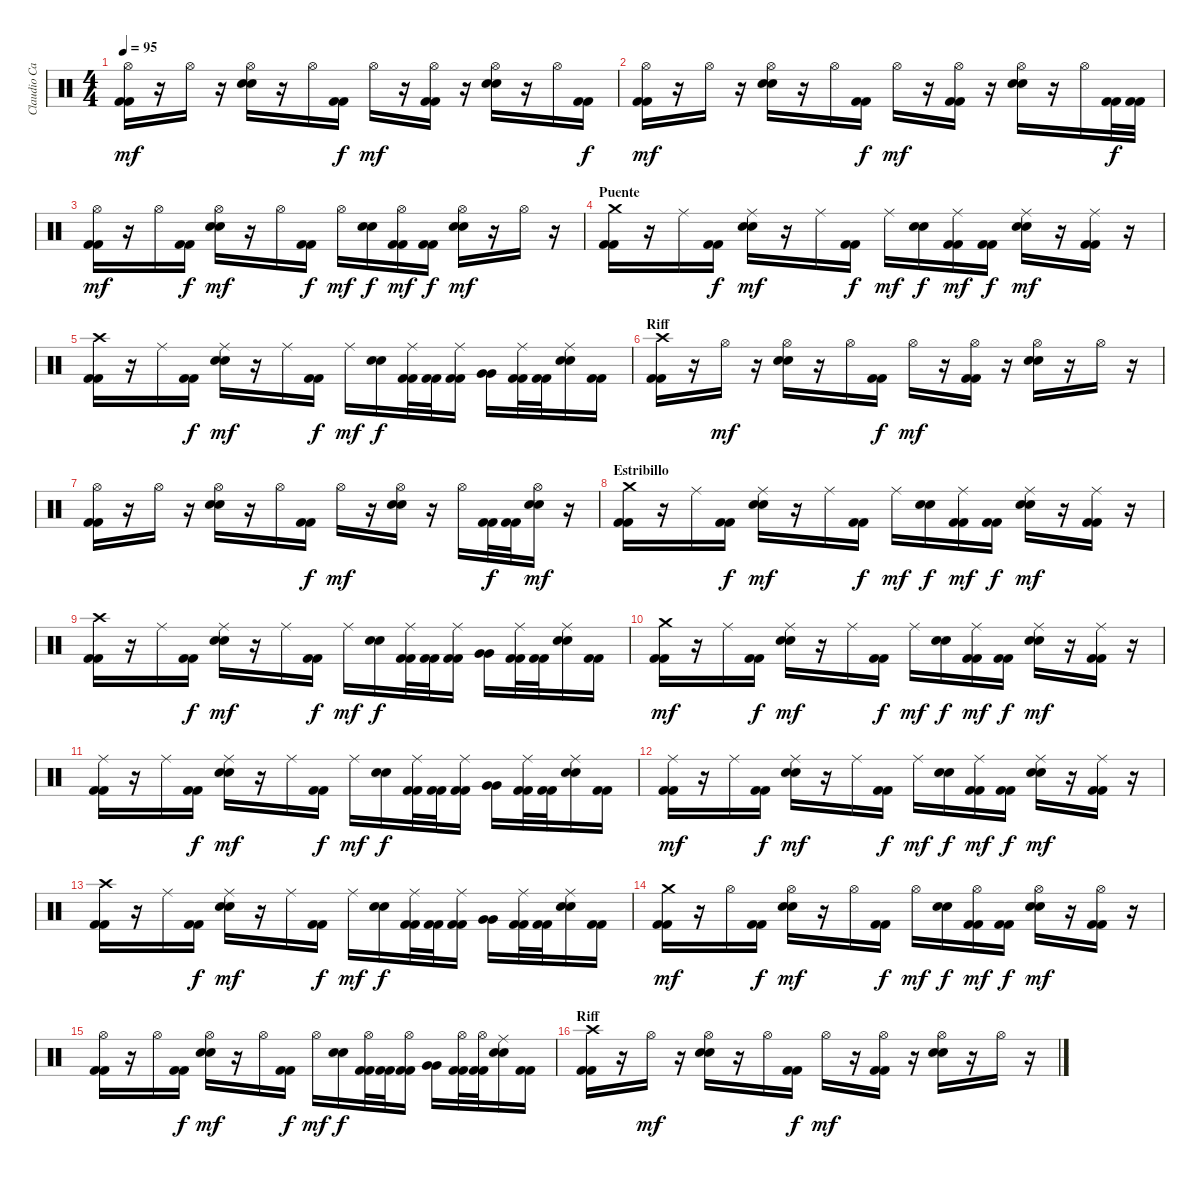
\track ("Claudio Cardaci (bateria)" "Claudio Ca") {instrument percussion}
\staff {score}
\articulation defaults
\ts (4 4)
\tempo 95
\clef neutral
\ks c
("Hi-Hat (open)" "Kick (hit) 2" "Kick (hit) 2").16{dy mf} r.16 "Hi-Hat (open)".16 r.16 ("Hi-Hat (open)" "Snare (hit) 2" "Snare (hit) 2").16 r.16 "Hi-Hat (open)".16 ("Kick (hit) 2" "Kick (hit) 2").16{dy f} "Hi-Hat (open)".16{dy mf} r.16 ("Hi-Hat (open)" "Kick (hit) 2" "Kick (hit) 2").16 r.16 ("Hi-Hat (open)" "Snare (hit) 2" "Snare (hit) 2").16 r.16 "Hi-Hat (open)".16 ("Kick (hit) 2" "Kick (hit) 2").16{dy f} |
("Hi-Hat (open)" "Kick (hit) 2" "Kick (hit) 2").16{dy mf} r.16 "Hi-Hat (open)".16 r.16 ("Hi-Hat (open)" "Snare (hit) 2" "Snare (hit) 2").16 r.16 "Hi-Hat (open)".16 ("Kick (hit) 2" "Kick (hit) 2").16{dy f} "Hi-Hat (open)".16{dy mf} r.16 ("Hi-Hat (open)" "Kick (hit) 2" "Kick (hit) 2").16 r.16 ("Hi-Hat (open)" "Snare (hit) 2" "Snare (hit) 2").16 r.16 "Hi-Hat (open)".16 ("Kick (hit) 2" "Kick (hit) 2").32{dy f} ("Kick (hit) 2" "Kick (hit) 2").32 |
("Hi-Hat (open)" "Kick (hit) 2" "Kick (hit) 2").16{dy mf} r.16 "Hi-Hat (open)".16 ("Kick (hit) 2" "Kick (hit) 2").16{dy f} ("Hi-Hat (open)" "Snare (hit) 2" "Snare (hit) 2").16{dy mf} r.16 "Hi-Hat (open)".16 ("Kick (hit) 2" "Kick (hit) 2").16{dy f} "Hi-Hat (open)".16{dy mf} ("Snare (hit) 2" "Snare (hit) 2").16{dy f} ("Hi-Hat (open)" "Kick (hit) 2" "Kick (hit) 2").16{dy mf} ("Kick (hit) 2" "Kick (hit) 2").16{dy f} ("Hi-Hat (open)" "Snare (hit) 2" "Snare (hit) 2").16{dy mf} r.16 "Hi-Hat (open)".16 r.16 |
\section ("" "Puente")
("Crash medium (hit)" "Kick (hit) 2" "Kick (hit) 2").16 r.16 "Ride (middle)".16 ("Kick (hit) 2" "Kick (hit) 2").16{dy f} ("Ride (middle)" "Snare (hit) 2" "Snare (hit) 2").16{dy mf} r.16 "Ride (middle)".16 ("Kick (hit) 2" "Kick (hit) 2").16{dy f} "Ride (middle)".16{dy mf} ("Snare (hit) 2" "Snare (hit) 2").16{dy f} ("Ride (middle)" "Kick (hit) 2" "Kick (hit) 2").16{dy mf} ("Kick (hit) 2" "Kick (hit) 2").16{dy f} ("Ride (middle)" "Snare (hit) 2" "Snare (hit) 2").16{dy mf} r.16 ("Ride (middle)" "Kick (hit) 2" "Kick (hit) 2").16 r.16 |
("Crash high (hit)" "Kick (hit) 2" "Kick (hit) 2").16 r.16 "Ride (middle)".16 ("Kick (hit) 2" "Kick (hit) 2").16{dy f} ("Ride (middle)" "Snare (hit) 2" "Snare (hit) 2").16{dy mf} r.16 "Ride (middle)".16 ("Kick (hit) 2" "Kick (hit) 2").16{dy f} "Ride (middle)".16{dy mf} ("Snare (hit) 2" "Snare (hit) 2").16{dy f} ("Ride (middle)" "Kick (hit) 2" "Kick (hit) 2").32 ("Kick (hit) 2" "Kick (hit) 2").32 ("Ride (middle)" "Kick (hit) 2" "Kick (hit) 2").16 ("Very Low Tom (hit)" "Very Low Tom (hit)").16 ("Ride (middle)" "Kick (hit) 2" "Kick (hit) 2").32 ("Kick (hit) 2" "Kick (hit) 2").32 ("Ride (middle)" "Snare (hit) 2" "Snare (hit) 2").16 ("Kick (hit) 2" "Kick (hit) 2").16 |
\section ("" "Riff")
("Crash high (hit)" "Kick (hit) 2" "Kick (hit) 2").16 r.16 "Hi-Hat (open)".16{dy mf} r.16 ("Hi-Hat (open)" "Snare (hit) 2" "Snare (hit) 2").16 r.16 "Hi-Hat (open)".16 ("Kick (hit) 2" "Kick (hit) 2").16{dy f} "Hi-Hat (open)".16{dy mf} r.16 ("Hi-Hat (open)" "Kick (hit) 2" "Kick (hit) 2").16 r.16 ("Hi-Hat (open)" "Snare (hit) 2" "Snare (hit) 2").16 r.16 "Hi-Hat (open)".16 r.16 |
("Hi-Hat (open)" "Kick (hit) 2" "Kick (hit) 2").16 r.16 "Hi-Hat (open)".16 r.16 ("Hi-Hat (open)" "Snare (hit) 2" "Snare (hit) 2").16 r.16 "Hi-Hat (open)".16 ("Kick (hit) 2" "Kick (hit) 2").16{dy f} "Hi-Hat (open)".16{dy mf} r.16 ("Hi-Hat (open)" "Snare (hit) 2" "Snare (hit) 2").16 r.16 "Hi-Hat (open)".16 ("Kick (hit) 2" "Kick (hit) 2").32{dy f} ("Kick (hit) 2" "Kick (hit) 2").32 ("Hi-Hat (open)" "Snare (hit) 2" "Snare (hit) 2").16{dy mf} r.16 |
\section ("" "Estribillo")
("Crash medium (hit)" "Kick (hit) 2" "Kick (hit) 2").16 r.16 "Ride (middle)".16 ("Kick (hit) 2" "Kick (hit) 2").16{dy f} ("Ride (middle)" "Snare (hit) 2" "Snare (hit) 2").16{dy mf} r.16 "Ride (middle)".16 ("Kick (hit) 2" "Kick (hit) 2").16{dy f} "Ride (middle)".16{dy mf} ("Snare (hit) 2" "Snare (hit) 2").16{dy f} ("Ride (middle)" "Kick (hit) 2" "Kick (hit) 2").16{dy mf} ("Kick (hit) 2" "Kick (hit) 2").16{dy f} ("Ride (middle)" "Snare (hit) 2" "Snare (hit) 2").16{dy mf} r.16 ("Ride (middle)" "Kick (hit) 2" "Kick (hit) 2").16 r.16 |
("Crash high (hit)" "Kick (hit) 2" "Kick (hit) 2").16 r.16 "Ride (middle)".16 ("Kick (hit) 2" "Kick (hit) 2").16{dy f} ("Ride (middle)" "Snare (hit) 2" "Snare (hit) 2").16{dy mf} r.16 "Ride (middle)".16 ("Kick (hit) 2" "Kick (hit) 2").16{dy f} "Ride (middle)".16{dy mf} ("Snare (hit) 2" "Snare (hit) 2").16{dy f} ("Ride (middle)" "Kick (hit) 2" "Kick (hit) 2").32 ("Kick (hit) 2" "Kick (hit) 2").32 ("Ride (middle)" "Kick (hit) 2" "Kick (hit) 2").16 ("Very Low Tom (hit)" "Very Low Tom (hit)").16 ("Ride (middle)" "Kick (hit) 2" "Kick (hit) 2").32 ("Kick (hit) 2" "Kick (hit) 2").32 ("Ride (middle)" "Snare (hit) 2" "Snare (hit) 2").16 ("Kick (hit) 2" "Kick (hit) 2").16 |
("Crash medium (hit)" "Kick (hit) 2" "Kick (hit) 2").16{dy mf} r.16 "Ride (middle)".16 ("Kick (hit) 2" "Kick (hit) 2").16{dy f} ("Ride (middle)" "Snare (hit) 2" "Snare (hit) 2").16{dy mf} r.16 "Ride (middle)".16 ("Kick (hit) 2" "Kick (hit) 2").16{dy f} "Ride (middle)".16{dy mf} ("Snare (hit) 2" "Snare (hit) 2").16{dy f} ("Ride (middle)" "Kick (hit) 2" "Kick (hit) 2").16{dy mf} ("Kick (hit) 2" "Kick (hit) 2").16{dy f} ("Ride (middle)" "Snare (hit) 2" "Snare (hit) 2").16{dy mf} r.16 ("Ride (middle)" "Kick (hit) 2" "Kick (hit) 2").16 r.16 |
("Ride (middle)" "Kick (hit) 2" "Kick (hit) 2").16 r.16 "Ride (middle)".16 ("Kick (hit) 2" "Kick (hit) 2").16{dy f} ("Ride (middle)" "Snare (hit) 2" "Snare (hit) 2").16{dy mf} r.16 "Ride (middle)".16 ("Kick (hit) 2" "Kick (hit) 2").16{dy f} "Ride (middle)".16{dy mf} ("Snare (hit) 2" "Snare (hit) 2").16{dy f} ("Ride (middle)" "Kick (hit) 2" "Kick (hit) 2").32 ("Kick (hit) 2" "Kick (hit) 2").32 ("Ride (middle)" "Kick (hit) 2" "Kick (hit) 2").16 ("Very Low Tom (hit)" "Very Low Tom (hit)").16 ("Ride (middle)" "Kick (hit) 2" "Kick (hit) 2").32 ("Kick (hit) 2" "Kick (hit) 2").32 ("Ride (middle)" "Snare (hit) 2" "Snare (hit) 2").16 ("Kick (hit) 2" "Kick (hit) 2").16 |
("Ride (middle)" "Kick (hit) 2" "Kick (hit) 2").16{dy mf} r.16 "Ride (middle)".16 ("Kick (hit) 2" "Kick (hit) 2").16{dy f} ("Ride (middle)" "Snare (hit) 2" "Snare (hit) 2").16{dy mf} r.16 "Ride (middle)".16 ("Kick (hit) 2" "Kick (hit) 2").16{dy f} "Ride (middle)".16{dy mf} ("Snare (hit) 2" "Snare (hit) 2").16{dy f} ("Ride (middle)" "Kick (hit) 2" "Kick (hit) 2").16{dy mf} ("Kick (hit) 2" "Kick (hit) 2").16{dy f} ("Ride (middle)" "Snare (hit) 2" "Snare (hit) 2").16{dy mf} r.16 ("Ride (middle)" "Kick (hit) 2" "Kick (hit) 2").16 r.16 |
("Crash high (hit)" "Kick (hit) 2" "Kick (hit) 2").16 r.16 "Ride (middle)".16 ("Kick (hit) 2" "Kick (hit) 2").16{dy f} ("Ride (middle)" "Snare (hit) 2" "Snare (hit) 2").16{dy mf} r.16 "Ride (middle)".16 ("Kick (hit) 2" "Kick (hit) 2").16{dy f} "Ride (middle)".16{dy mf} ("Snare (hit) 2" "Snare (hit) 2").16{dy f} ("Ride (middle)" "Kick (hit) 2" "Kick (hit) 2").32 ("Kick (hit) 2" "Kick (hit) 2").32 ("Ride (middle)" "Kick (hit) 2" "Kick (hit) 2").16 ("Very Low Tom (hit)" "Very Low Tom (hit)").16 ("Ride (middle)" "Kick (hit) 2" "Kick (hit) 2").32 ("Kick (hit) 2" "Kick (hit) 2").32 ("Ride (middle)" "Snare (hit) 2" "Snare (hit) 2").16 ("Kick (hit) 2" "Kick (hit) 2").16 |
("Crash medium (hit)" "Kick (hit) 2" "Kick (hit) 2").16{dy mf} r.16 "Hi-Hat (open)".16 ("Kick (hit) 2" "Kick (hit) 2").16{dy f} ("Hi-Hat (open)" "Snare (hit) 2" "Snare (hit) 2").16{dy mf} r.16 "Hi-Hat (open)".16 ("Kick (hit) 2" "Kick (hit) 2").16{dy f} "Hi-Hat (open)".16{dy mf} ("Snare (hit) 2" "Snare (hit) 2").16{dy f} ("Hi-Hat (open)" "Kick (hit) 2" "Kick (hit) 2").16{dy mf} ("Kick (hit) 2" "Kick (hit) 2").16{dy f} ("Hi-Hat (open)" "Snare (hit) 2" "Snare (hit) 2").16{dy mf} r.16 ("Hi-Hat (open)" "Kick (hit) 2" "Kick (hit) 2").16 r.16 |
("Hi-Hat (open)" "Kick (hit) 2" "Kick (hit) 2").16 r.16 "Hi-Hat (open)".16 ("Kick (hit) 2" "Kick (hit) 2").16{dy f} ("Hi-Hat (open)" "Snare (hit) 2" "Snare (hit) 2").16{dy mf} r.16 "Hi-Hat (open)".16 ("Kick (hit) 2" "Kick (hit) 2").16{dy f} "Hi-Hat (open)".16{dy mf} ("Snare (hit) 2" "Snare (hit) 2").16{dy f} ("Hi-Hat (open)" "Kick (hit) 2" "Kick (hit) 2").32 ("Kick (hit) 2" "Kick (hit) 2").32 ("Hi-Hat (open)" "Kick (hit) 2" "Kick (hit) 2").16 ("Very Low Tom (hit)" "Very Low Tom (hit)").16 ("Hi-Hat (open)" "Kick (hit) 2" "Kick (hit) 2").32 ("Hi-Hat (open)" "Kick (hit) 2" "Kick (hit) 2").32 ("Ride (middle)" "Snare (hit) 2" "Snare (hit) 2").16 ("Kick (hit) 2" "Kick (hit) 2").16 |
\section ("" "Riff")
("Crash high (hit)" "Kick (hit) 2" "Kick (hit) 2").16 r.16 "Hi-Hat (open)".16{dy mf} r.16 ("Hi-Hat (open)" "Snare (hit) 2" "Snare (hit) 2").16 r.16 "Hi-Hat (open)".16 ("Kick (hit) 2" "Kick (hit) 2").16{dy f} "Hi-Hat (open)".16{dy mf} r.16 ("Hi-Hat (open)" "Kick (hit) 2" "Kick (hit) 2").16 r.16 ("Hi-Hat (open)" "Snare (hit) 2" "Snare (hit) 2").16 r.16 "Hi-Hat (open)".16 r.16
